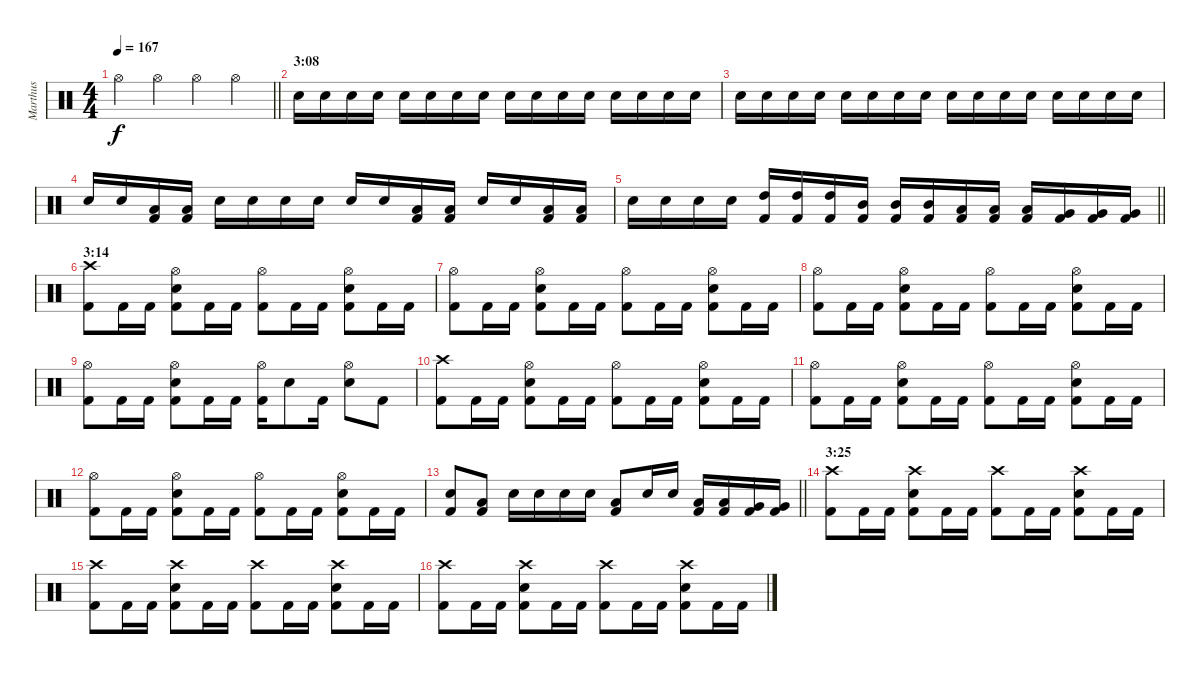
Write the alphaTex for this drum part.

\track ("Marthus" "Marthus") {instrument percussion}
\staff {score}
\articulation defaults
\ts (4 4)
\tempo 167
\clef neutral
\barLineRight lightlight
\ks c "Hi-Hat (open)".4{dy f} "Hi-Hat (open)".4 "Hi-Hat (open)".4 "Hi-Hat (open)".4
|
\section ("" "3:08")
"Snare (hit) 2".16 "Snare (hit) 2".16 "Snare (hit) 2".16 "Snare (hit) 2".16 "Snare (hit) 2".16 "Snare (hit) 2".16 "Snare (hit) 2".16 "Snare (hit) 2".16 "Snare (hit) 2".16 "Snare (hit) 2".16 "Snare (hit) 2".16 "Snare (hit) 2".16 "Snare (hit) 2".16 "Snare (hit) 2".16 "Snare (hit) 2".16 "Snare (hit) 2".16 |
"Snare (hit) 2".16 "Snare (hit) 2".16 "Snare (hit) 2".16 "Snare (hit) 2".16 "Snare (hit) 2".16 "Snare (hit) 2".16 "Snare (hit) 2".16 "Snare (hit) 2".16 "Snare (hit) 2".16 "Snare (hit) 2".16 "Snare (hit) 2".16 "Snare (hit) 2".16 "Snare (hit) 2".16 "Snare (hit) 2".16 "Snare (hit) 2".16 "Snare (hit) 2".16 |
"Snare (hit) 2".16 "Snare (hit) 2".16 ("Kick (hit) 2" "Low Tom (hit)").16 ("Kick (hit) 2" "Low Tom (hit)").16 "Snare (hit) 2".16 "Snare (hit) 2".16 "Snare (hit) 2".16 "Snare (hit) 2".16 "Snare (hit) 2".16 "Snare (hit) 2".16 ("Kick (hit) 2" "Low Tom (hit)").16 ("Kick (hit) 2" "Low Tom (hit)").16 "Snare (hit) 2".16 "Snare (hit) 2".16 ("Kick (hit) 2" "Low Tom (hit)").16 ("Kick (hit) 2" "Low Tom (hit)").16 |
\barLineRight lightlight "Snare (hit) 2".16 "Snare (hit) 2".16 "Snare (hit) 2".16 "Snare (hit) 2".16
("Kick (hit) 2" "High Tom (hit)").16 ("Kick (hit) 2" "High Tom (hit)").16 ("Kick (hit) 2" "High Tom (hit)").16 ("Kick (hit) 2" "Mid Tom (hit)").16 ("Kick (hit) 2" "Mid Tom (hit)").16 ("Kick (hit) 2" "Mid Tom (hit)").16 ("Kick (hit) 2" "Low Tom (hit)").16 ("Kick (hit) 2" "Low Tom (hit)").16 ("Kick (hit) 2" "Low Tom (hit)").16 ("Kick (hit) 2" "Very Low Tom (hit)").16 ("Kick (hit) 2" "Very Low Tom (hit)").16 ("Kick (hit) 2" "Very Low Tom (hit)").16 |
\section ("" "3:14")
("Kick (hit) 2" "Crash high (hit)").8 "Kick (hit) 2".16 "Kick (hit) 2".16 ("Kick (hit) 2" "Snare (hit) 2" "Hi-Hat (open)").8 "Kick (hit) 2".16 "Kick (hit) 2".16 ("Kick (hit) 2" "Hi-Hat (open)").8 "Kick (hit) 2".16 "Kick (hit) 2".16 ("Kick (hit) 2" "Snare (hit) 2" "Hi-Hat (open)").8 "Kick (hit) 2".16 "Kick (hit) 2".16 |
("Kick (hit) 2" "Hi-Hat (open)").8 "Kick (hit) 2".16 "Kick (hit) 2".16 ("Kick (hit) 2" "Snare (hit) 2" "Hi-Hat (open)").8 "Kick (hit) 2".16 "Kick (hit) 2".16 ("Kick (hit) 2" "Hi-Hat (open)").8 "Kick (hit) 2".16 "Kick (hit) 2".16 ("Kick (hit) 2" "Snare (hit) 2" "Hi-Hat (open)").8 "Kick (hit) 2".16 "Kick (hit) 2".16 |
("Kick (hit) 2" "Hi-Hat (open)").8 "Kick (hit) 2".16 "Kick (hit) 2".16 ("Kick (hit) 2" "Snare (hit) 2" "Hi-Hat (open)").8 "Kick (hit) 2".16 "Kick (hit) 2".16 ("Kick (hit) 2" "Hi-Hat (open)").8 "Kick (hit) 2".16 "Kick (hit) 2".16 ("Kick (hit) 2" "Snare (hit) 2" "Hi-Hat (open)").8 "Kick (hit) 2".16 "Kick (hit) 2".16 |
("Kick (hit) 2" "Hi-Hat (open)").8 "Kick (hit) 2".16 "Kick (hit) 2".16 ("Kick (hit) 2" "Snare (hit) 2" "Hi-Hat (open)").8 "Kick (hit) 2".16 "Kick (hit) 2".16 ("Kick (hit) 2" "Hi-Hat (open)").16 "Snare (hit) 2".8 "Kick (hit) 2".16 ("Snare (hit) 2" "Hi-Hat (open)").8 "Kick (hit) 2".8 |
("Kick (hit) 2" "Crash high (hit)").8 "Kick (hit) 2".16 "Kick (hit) 2".16 ("Kick (hit) 2" "Snare (hit) 2" "Hi-Hat (open)").8 "Kick (hit) 2".16 "Kick (hit) 2".16 ("Kick (hit) 2" "Hi-Hat (open)").8 "Kick (hit) 2".16 "Kick (hit) 2".16 ("Kick (hit) 2" "Snare (hit) 2" "Hi-Hat (open)").8 "Kick (hit) 2".16 "Kick (hit) 2".16 |
("Kick (hit) 2" "Hi-Hat (open)").8 "Kick (hit) 2".16 "Kick (hit) 2".16 ("Kick (hit) 2" "Snare (hit) 2" "Hi-Hat (open)").8 "Kick (hit) 2".16 "Kick (hit) 2".16 ("Kick (hit) 2" "Hi-Hat (open)").8 "Kick (hit) 2".16 "Kick (hit) 2".16 ("Kick (hit) 2" "Snare (hit) 2" "Hi-Hat (open)").8 "Kick (hit) 2".16 "Kick (hit) 2".16 |
("Kick (hit) 2" "Hi-Hat (open)").8 "Kick (hit) 2".16 "Kick (hit) 2".16 ("Kick (hit) 2" "Snare (hit) 2" "Hi-Hat (open)").8 "Kick (hit) 2".16 "Kick (hit) 2".16 ("Kick (hit) 2" "Hi-Hat (open)").8 "Kick (hit) 2".16 "Kick (hit) 2".16 ("Kick (hit) 2" "Snare (hit) 2" "Hi-Hat (open)").8 "Kick (hit) 2".16 "Kick (hit) 2".16 |
\barLineRight lightlight
("Kick (hit) 2" "Snare (hit) 2").8 ("Kick (hit) 2" "Low Tom (hit)").8 "Snare (hit) 2".16 "Snare (hit) 2".16 "Snare (hit) 2".16 "Snare (hit) 2".16 ("Kick (hit) 2" "Low Tom (hit)").8 "Snare (hit) 2".16 "Snare (hit) 2".16 ("Kick (hit) 2" "Low Tom (hit)").16 ("Kick (hit) 2" "Low Tom (hit)").16 ("Kick (hit) 2" "Very Low Tom (hit)").16 ("Kick (hit) 2" "Very Low Tom (hit)").16 |
\section ("" "3:25")
("Kick (hit) 2" "Crash high (hit)").8 "Kick (hit) 2".16 "Kick (hit) 2".16 ("Kick (hit) 2" "Snare (hit) 2" "Crash high (hit)").8 "Kick (hit) 2".16 "Kick (hit) 2".16 ("Kick (hit) 2" "Crash high (hit)").8 "Kick (hit) 2".16 "Kick (hit) 2".16 ("Kick (hit) 2" "Snare (hit) 2" "Crash high (hit)").8 "Kick (hit) 2".16 "Kick (hit) 2".16 |
("Kick (hit) 2" "Crash high (hit)").8 "Kick (hit) 2".16 "Kick (hit) 2".16 ("Kick (hit) 2" "Snare (hit) 2" "Crash high (hit)").8 "Kick (hit) 2".16 "Kick (hit) 2".16 ("Kick (hit) 2" "Crash high (hit)").8 "Kick (hit) 2".16 "Kick (hit) 2".16 ("Kick (hit) 2" "Snare (hit) 2" "Crash high (hit)").8 "Kick (hit) 2".16 "Kick (hit) 2".16 |
("Kick (hit) 2" "Crash high (hit)").8 "Kick (hit) 2".16 "Kick (hit) 2".16 ("Kick (hit) 2" "Snare (hit) 2" "Crash high (hit)").8 "Kick (hit) 2".16 "Kick (hit) 2".16 ("Kick (hit) 2" "Crash high (hit)").8 "Kick (hit) 2".16 "Kick (hit) 2".16 ("Kick (hit) 2" "Snare (hit) 2" "Crash high (hit)").8 "Kick (hit) 2".16 "Kick (hit) 2".16
